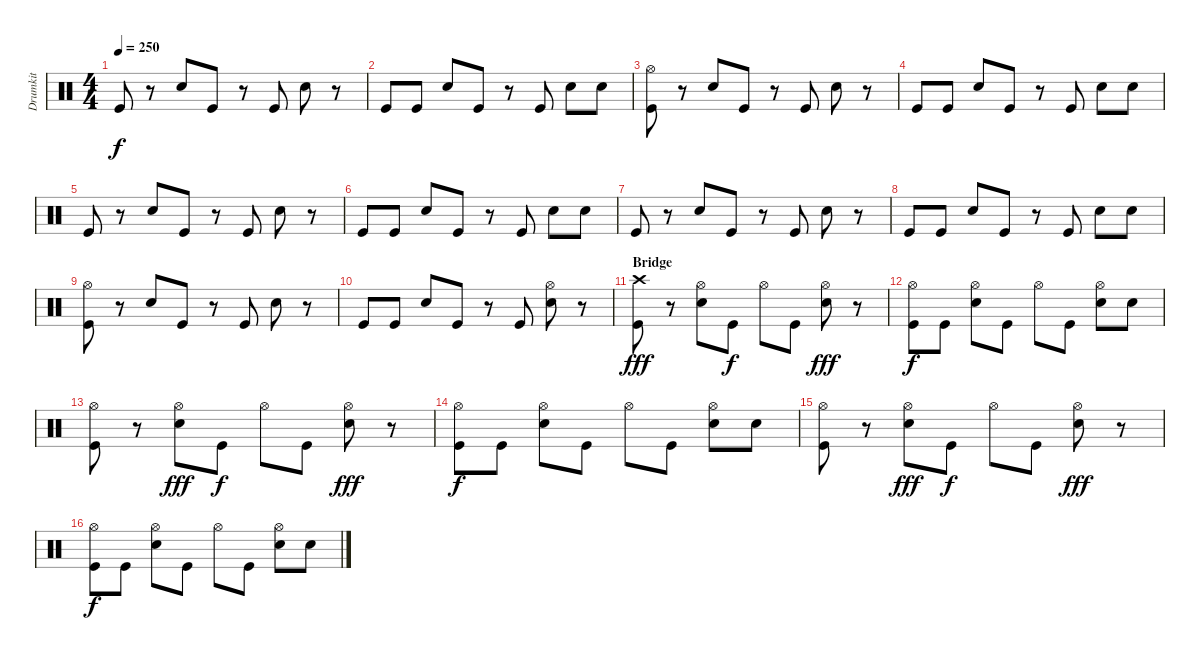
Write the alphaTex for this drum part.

\track ("Drumkit" "Drumkit") {instrument percussion}
\staff {score}
\articulation defaults
\ts (4 4)
\tempo 250
\clef neutral
\ks c "Kick (hit)".8{dy f}
r.8 "Snare (hit) 2".8 "Kick (hit)".8 r.8 "Kick (hit)".8 "Snare (hit) 2".8 r.8 |
"Kick (hit)".8 "Kick (hit)".8 "Snare (hit) 2".8 "Kick (hit)".8 r.8 "Kick (hit)".8 "Snare (hit) 2".8 "Snare (hit) 2".8 |
("Hi-Hat (open)" "Kick (hit)").8 r.8 "Snare (hit) 2".8 "Kick (hit)".8 r.8 "Kick (hit)".8 "Snare (hit) 2".8 r.8 |
"Kick (hit)".8 "Kick (hit)".8 "Snare (hit) 2".8 "Kick (hit)".8 r.8 "Kick (hit)".8 "Snare (hit) 2".8 "Snare (hit) 2".8 |
"Kick (hit)".8 r.8 "Snare (hit) 2".8 "Kick (hit)".8 r.8 "Kick (hit)".8 "Snare (hit) 2".8 r.8 |
"Kick (hit)".8 "Kick (hit)".8 "Snare (hit) 2".8 "Kick (hit)".8 r.8 "Kick (hit)".8 "Snare (hit) 2".8 "Snare (hit) 2".8 |
"Kick (hit)".8 r.8 "Snare (hit) 2".8 "Kick (hit)".8 r.8 "Kick (hit)".8 "Snare (hit) 2".8 r.8 |
"Kick (hit)".8 "Kick (hit)".8 "Snare (hit) 2".8 "Kick (hit)".8 r.8 "Kick (hit)".8 "Snare (hit) 2".8 "Snare (hit) 2".8 |
("Hi-Hat (open)" "Kick (hit)").8 r.8 "Snare (hit) 2".8 "Kick (hit)".8 r.8 "Kick (hit)".8 "Snare (hit) 2".8 r.8 |
"Kick (hit)".8 "Kick (hit)".8 "Snare (hit) 2".8 "Kick (hit)".8 r.8 "Kick (hit)".8 ("Hi-Hat (open)" "Snare (hit) 2").8 r.8 |
\section ("" "Bridge")
("Crash high (hit)" "Kick (hit)").8{dy fff} r.8 ("Hi-Hat (open)" "Snare (hit) 2").8 "Kick (hit)".8{dy f} "Hi-Hat (open)".8 "Kick (hit)".8 ("Hi-Hat (open)" "Snare (hit) 2").8{dy fff} r.8 |
("Hi-Hat (open)" "Kick (hit)").8{dy f} "Kick (hit)".8 ("Hi-Hat (open)" "Snare (hit) 2").8 "Kick (hit)".8 "Hi-Hat (open)".8 "Kick (hit)".8 ("Hi-Hat (open)" "Snare (hit) 2").8 "Snare (hit) 2".8 |
("Hi-Hat (open)" "Kick (hit)").8 r.8 ("Hi-Hat (open)" "Snare (hit) 2").8{dy fff} "Kick (hit)".8{dy f} "Hi-Hat (open)".8 "Kick (hit)".8 ("Hi-Hat (open)" "Snare (hit) 2").8{dy fff} r.8 |
("Hi-Hat (open)" "Kick (hit)").8{dy f} "Kick (hit)".8 ("Hi-Hat (open)" "Snare (hit) 2").8 "Kick (hit)".8 "Hi-Hat (open)".8 "Kick (hit)".8 ("Hi-Hat (open)" "Snare (hit) 2").8 "Snare (hit) 2".8 |
("Hi-Hat (open)" "Kick (hit)").8 r.8 ("Hi-Hat (open)" "Snare (hit) 2").8{dy fff} "Kick (hit)".8{dy f} "Hi-Hat (open)".8 "Kick (hit)".8 ("Hi-Hat (open)" "Snare (hit) 2").8{dy fff} r.8 |
("Hi-Hat (open)" "Kick (hit)").8{dy f} "Kick (hit)".8 ("Hi-Hat (open)" "Snare (hit) 2").8 "Kick (hit)".8 "Hi-Hat (open)".8 "Kick (hit)".8 ("Hi-Hat (open)" "Snare (hit) 2").8 "Snare (hit) 2".8
